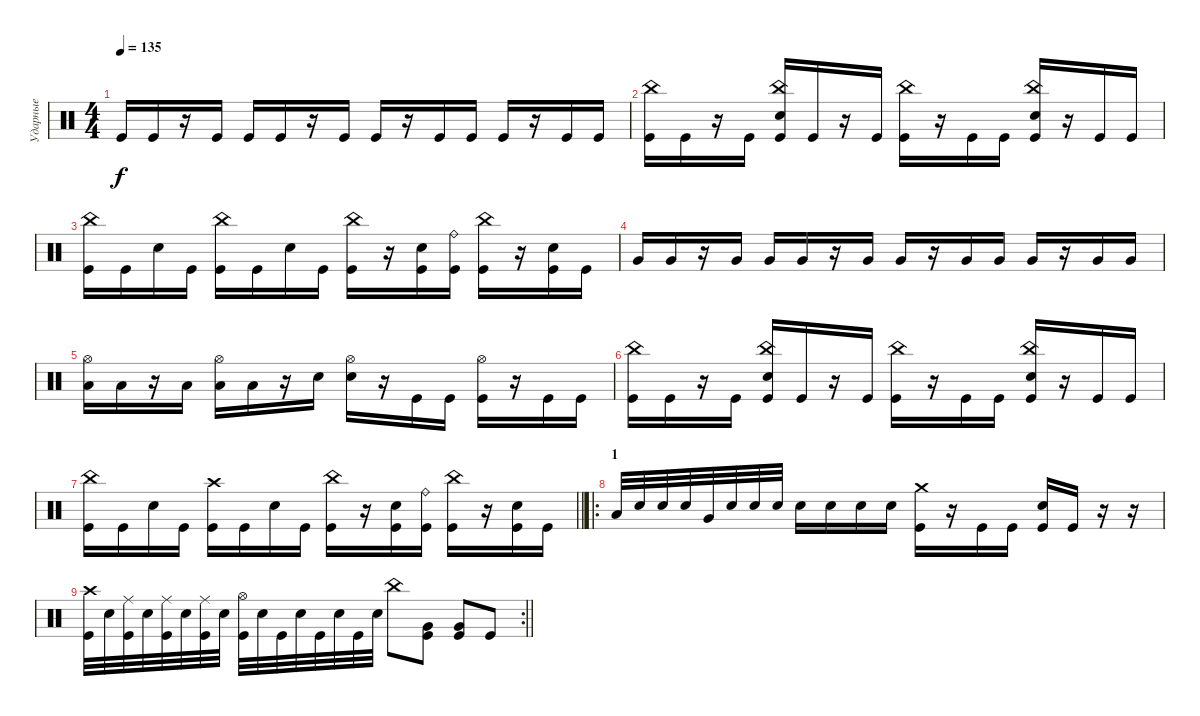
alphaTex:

\track ("Ударные" "Ударные") {instrument percussion}
\staff {score}
\articulation defaults
\ts (4 4)
\tempo 135
\clef neutral
\ks c "Kick (hit)".16{dy f} "Kick (hit)".16
r.16 "Kick (hit)".16 "Kick (hit)".16 "Kick (hit)".16 r.16 "Kick (hit)".16 "Kick (hit)".16 r.16 "Kick (hit)".16 "Kick (hit)".16 "Kick (hit)".16 r.16 "Kick (hit)".16 "Kick (hit)".16 |
("China (hit)" "Kick (hit)").16 "Kick (hit)".16 r.16 "Kick (hit)".16 ("China (hit)" "Electric Snare (hit)" "Kick (hit)").16 "Kick (hit)".16 r.16 "Kick (hit)".16 ("China (hit)" "Kick (hit)").16 r.16 "Kick (hit)".16 "Kick (hit)".16 ("China (hit)" "Electric Snare (hit)" "Kick (hit)").16 r.16 "Kick (hit)".16 "Kick (hit)".16 |
("China (hit)" "Kick (hit)").16 "Kick (hit)".16 "Electric Snare (hit)".16 "Kick (hit)".16 ("China (hit)" "Kick (hit)").16 "Kick (hit)".16 "Electric Snare (hit)".16 "Kick (hit)".16 ("China (hit)" "Kick (hit)").16 r.16 ("Electric Snare (hit)" "Kick (hit)").16 ("Ride (bell)" "Kick (hit)").16 ("China (hit)" "Kick (hit)").16 r.16 ("Electric Snare (hit)" "Kick (hit)").16 "Kick (hit)".16 |
"Very Low Tom (hit)".16 "Very Low Tom (hit)".16 r.16 "Very Low Tom (hit)".16 "Very Low Tom (hit)".16 "Very Low Tom (hit)".16 r.16 "Very Low Tom (hit)".16 "Very Low Tom (hit)".16 r.16 "Very Low Tom (hit)".16 "Very Low Tom (hit)".16 "Very Low Tom (hit)".16 r.16 "Very Low Tom (hit)".16 "Very Low Tom (hit)".16 |
("Hi-Hat (open)" "Low Floor Tom (hit)").16 "Low Floor Tom (hit)".16 r.16 "Low Floor Tom (hit)".16 ("Hi-Hat (open)" "Low Floor Tom (hit)").16 "Low Floor Tom (hit)".16 r.16 "Electric Snare (hit)".16 ("Hi-Hat (open)" "Electric Snare (hit)").16 r.16 "Kick (hit)".16 "Kick (hit)".16 ("Hi-Hat (open)" "Kick (hit)").16 r.16 "Kick (hit)".16 "Kick (hit)".16 |
("China (hit)" "Kick (hit)").16 "Kick (hit)".16 r.16 "Kick (hit)".16 ("China (hit)" "Electric Snare (hit)" "Kick (hit)").16 "Kick (hit)".16 r.16 "Kick (hit)".16 ("China (hit)" "Kick (hit)").16 r.16 "Kick (hit)".16 "Kick (hit)".16 ("China (hit)" "Electric Snare (hit)" "Kick (hit)").16 r.16 "Kick (hit)".16 "Kick (hit)".16 |
\barLineRight lightlight
("China (hit)" "Kick (hit)").16 "Kick (hit)".16 "Electric Snare (hit)".16 "Kick (hit)".16 ("Crash high (hit)" "Kick (hit)").16 "Kick (hit)".16 "Electric Snare (hit)".16 "Kick (hit)".16 ("China (hit)" "Kick (hit)").16 r.16 ("Electric Snare (hit)" "Kick (hit)").16 ("Ride (bell)" "Kick (hit)").16 ("China (hit)" "Kick (hit)").16 r.16 ("Electric Snare (hit)" "Kick (hit)").16 "Kick (hit)".16 |
\ro
\section ("" "1")
"Low Tom (hit)".32 "Electric Snare (hit)".32 "Electric Snare (hit)".32 "Electric Snare (hit)".32 "Very Low Tom (hit)".32 "Electric Snare (hit)".32 "Electric Snare (hit)".32 "Electric Snare (hit)".32 "Electric Snare (hit)".16 "Electric Snare (hit)".16 "Electric Snare (hit)".16 "Electric Snare (hit)".16 ("Crash medium (hit)" "Kick (hit)").16 r.16 "Kick (hit)".16 "Kick (hit)".16 ("Electric Snare (hit)" "Kick (hit)").16 "Kick (hit)".16 r.16 r.16 |
\rc 2
\barLineRight lightlight
("Crash high (hit)" "Kick (hit)").32 "Electric Snare (hit)".32 ("Ride (middle)" "Kick (hit)").32 "Electric Snare (hit)".32 ("Ride (middle)" "Kick (hit)").32 "Electric Snare (hit)".32 ("Ride (middle)" "Kick (hit)").32 "Electric Snare (hit)".32 ("Hi-Hat (open)" "Kick (hit)").32 "Electric Snare (hit)".32 "Kick (hit)".32 "Electric Snare (hit)".32 "Kick (hit)".32 "Electric Snare (hit)".32 "Kick (hit)".32 "Electric Snare (hit)".32 "China (hit)".8 ("Very Low Tom (hit)" "Kick (hit)").8 ("Very Low Tom (hit)" "Kick (hit)").8 "Kick (hit)".8
